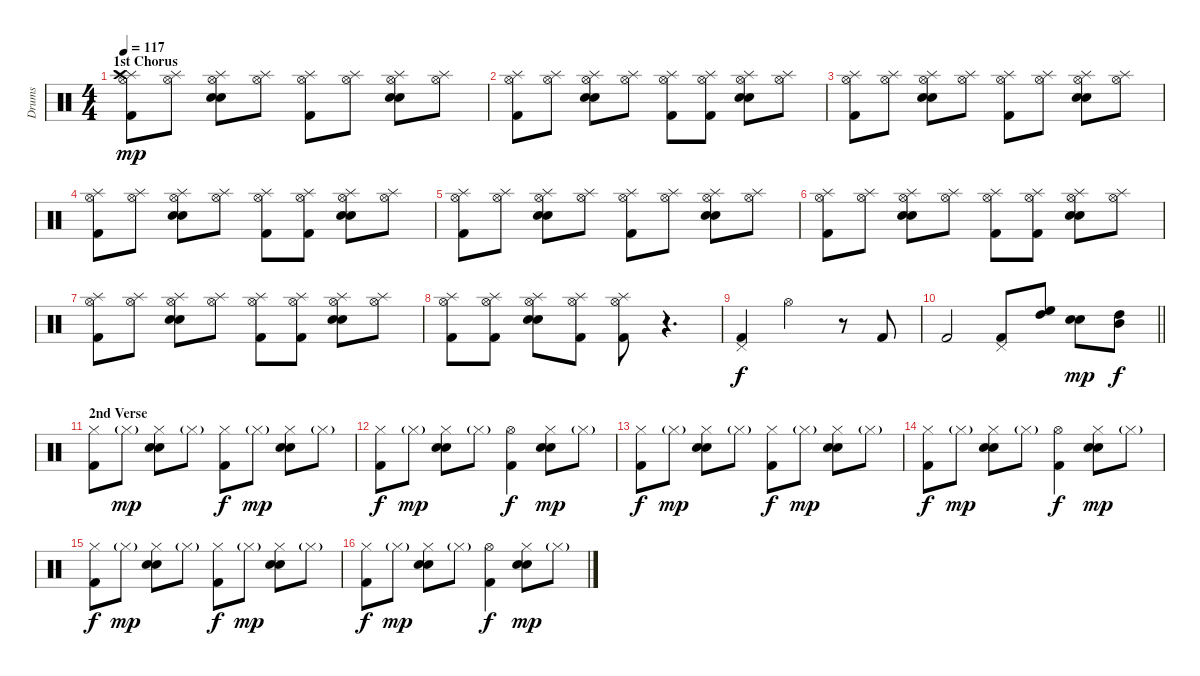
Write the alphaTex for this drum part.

\track ("Drums" "Drums") {instrument percussion}
\staff {score}
\articulation defaults
\ts (4 4)
\section ("" "1st Chorus")
\tempo 117
\clef neutral
\ks c
("Splash (hit)" "Crash high (hit)" "Hi-Hat (open)" "Kick (hit) 2").8{dy mp} ("Splash (hit)" "Hi-Hat (open)").8 ("Splash (hit)" "Hi-Hat (open)" "Electric Snare (hit)" "Snare (hit) 2").8 ("Splash (hit)" "Hi-Hat (open)").8 ("Splash (hit)" "Hi-Hat (open)" "Kick (hit) 2").8 ("Splash (hit)" "Hi-Hat (open)").8 ("Splash (hit)" "Hi-Hat (open)" "Electric Snare (hit)" "Snare (hit) 2").8 ("Splash (hit)" "Hi-Hat (open)").8 |
("Splash (hit)" "Hi-Hat (open)" "Kick (hit) 2").8 ("Splash (hit)" "Hi-Hat (open)").8 ("Splash (hit)" "Hi-Hat (open)" "Electric Snare (hit)" "Snare (hit) 2").8 ("Splash (hit)" "Hi-Hat (open)").8 ("Splash (hit)" "Hi-Hat (open)" "Kick (hit) 2").8 ("Splash (hit)" "Hi-Hat (open)" "Kick (hit) 2").8 ("Splash (hit)" "Hi-Hat (open)" "Electric Snare (hit)" "Snare (hit) 2").8 ("Splash (hit)" "Hi-Hat (open)").8 |
("Splash (hit)" "Hi-Hat (open)" "Kick (hit) 2").8 ("Splash (hit)" "Hi-Hat (open)").8 ("Splash (hit)" "Hi-Hat (open)" "Electric Snare (hit)" "Snare (hit) 2").8 ("Splash (hit)" "Hi-Hat (open)").8 ("Splash (hit)" "Hi-Hat (open)" "Kick (hit) 2").8 ("Splash (hit)" "Hi-Hat (open)").8 ("Splash (hit)" "Hi-Hat (open)" "Electric Snare (hit)" "Snare (hit) 2").8 ("Splash (hit)" "Hi-Hat (open)").8 |
("Splash (hit)" "Hi-Hat (open)" "Kick (hit) 2").8 ("Splash (hit)" "Hi-Hat (open)").8 ("Splash (hit)" "Hi-Hat (open)" "Electric Snare (hit)" "Snare (hit) 2").8 ("Splash (hit)" "Hi-Hat (open)").8 ("Splash (hit)" "Hi-Hat (open)" "Kick (hit) 2").8 ("Splash (hit)" "Hi-Hat (open)" "Kick (hit) 2").8 ("Splash (hit)" "Hi-Hat (open)" "Electric Snare (hit)" "Snare (hit) 2").8 ("Splash (hit)" "Hi-Hat (open)").8 |
("Splash (hit)" "Hi-Hat (open)" "Kick (hit) 2").8 ("Splash (hit)" "Hi-Hat (open)").8 ("Splash (hit)" "Hi-Hat (open)" "Electric Snare (hit)" "Snare (hit) 2").8 ("Splash (hit)" "Hi-Hat (open)").8 ("Splash (hit)" "Hi-Hat (open)" "Kick (hit) 2").8 ("Splash (hit)" "Hi-Hat (open)").8 ("Splash (hit)" "Hi-Hat (open)" "Electric Snare (hit)" "Snare (hit) 2").8 ("Splash (hit)" "Hi-Hat (open)").8 |
("Splash (hit)" "Hi-Hat (open)" "Kick (hit) 2").8 ("Splash (hit)" "Hi-Hat (open)").8 ("Splash (hit)" "Hi-Hat (open)" "Electric Snare (hit)" "Snare (hit) 2").8 ("Splash (hit)" "Hi-Hat (open)").8 ("Splash (hit)" "Hi-Hat (open)" "Kick (hit) 2").8 ("Splash (hit)" "Hi-Hat (open)" "Kick (hit) 2").8 ("Splash (hit)" "Hi-Hat (open)" "Electric Snare (hit)" "Snare (hit) 2").8 ("Splash (hit)" "Hi-Hat (open)").8 |
("Splash (hit)" "Hi-Hat (open)" "Kick (hit) 2").8 ("Splash (hit)" "Hi-Hat (open)").8 ("Splash (hit)" "Hi-Hat (open)" "Electric Snare (hit)" "Snare (hit) 2").8 ("Splash (hit)" "Hi-Hat (open)").8 ("Splash (hit)" "Hi-Hat (open)" "Kick (hit) 2").8 ("Splash (hit)" "Hi-Hat (open)" "Kick (hit) 2").8 ("Splash (hit)" "Hi-Hat (open)" "Electric Snare (hit)" "Snare (hit) 2").8 ("Splash (hit)" "Hi-Hat (open)").8 |
("Splash (hit)" "Hi-Hat (open)" "Kick (hit) 2").8 ("Splash (hit)" "Hi-Hat (open)" "Kick (hit) 2").8 ("Splash (hit)" "Hi-Hat (open)" "Electric Snare (hit)" "Snare (hit) 2").8 ("Splash (hit)" "Hi-Hat (open)" "Kick (hit) 2").8 ("Splash (hit)" "Hi-Hat (open)" "Kick (hit) 2").8 r.4{d} |
("Pedal Hi-Hat (hit)" "Kick (hit) 2").4{dy f} "Hi-Hat (open)".2 r.8 "Kick (hit) 2".8 |
\barLineRight lightlight "Kick (hit) 2".2
("Pedal Hi-Hat (hit)" "Kick (hit) 2").8 ("High Floor Tom (hit)" "High Tom (hit)").8 ("Electric Snare (hit)" "Snare (hit) 2").8{dy mp} ("Mid Tom (hit)" "High Tom (hit)").8{dy f} |
\section ("" "2nd Verse")
("Hi-Hat (closed)" "Kick (hit) 2").8 "Hi-Hat (closed)"{g}.8{dy mp} ("Hi-Hat (closed)" "Electric Snare (hit)" "Snare (hit) 2").8 "Hi-Hat (closed)"{g}.8 ("Hi-Hat (closed)" "Kick (hit) 2").8{dy f} "Hi-Hat (closed)"{g}.8{dy mp} ("Hi-Hat (closed)" "Electric Snare (hit)" "Snare (hit) 2").8 "Hi-Hat (closed)"{g}.8 |
("Hi-Hat (closed)" "Kick (hit) 2").8{dy f} "Hi-Hat (closed)"{g}.8{dy mp} ("Hi-Hat (closed)" "Electric Snare (hit)" "Snare (hit) 2").8 "Hi-Hat (closed)"{g}.8 ("Hi-Hat (open)" "Kick (hit) 2").4{dy f} ("Hi-Hat (closed)" "Electric Snare (hit)" "Snare (hit) 2").8{dy mp} "Hi-Hat (closed)"{g}.8 |
("Hi-Hat (closed)" "Kick (hit) 2").8{dy f} "Hi-Hat (closed)"{g}.8{dy mp} ("Hi-Hat (closed)" "Electric Snare (hit)" "Snare (hit) 2").8 "Hi-Hat (closed)"{g}.8 ("Hi-Hat (closed)" "Kick (hit) 2").8{dy f} "Hi-Hat (closed)"{g}.8{dy mp} ("Hi-Hat (closed)" "Electric Snare (hit)" "Snare (hit) 2").8 "Hi-Hat (closed)"{g}.8 |
("Hi-Hat (closed)" "Kick (hit) 2").8{dy f} "Hi-Hat (closed)"{g}.8{dy mp} ("Hi-Hat (closed)" "Electric Snare (hit)" "Snare (hit) 2").8 "Hi-Hat (closed)"{g}.8 ("Hi-Hat (open)" "Kick (hit) 2").4{dy f} ("Hi-Hat (closed)" "Electric Snare (hit)" "Snare (hit) 2").8{dy mp} "Hi-Hat (closed)"{g}.8 |
("Hi-Hat (closed)" "Kick (hit) 2").8{dy f} "Hi-Hat (closed)"{g}.8{dy mp} ("Hi-Hat (closed)" "Electric Snare (hit)" "Snare (hit) 2").8 "Hi-Hat (closed)"{g}.8 ("Hi-Hat (closed)" "Kick (hit) 2").8{dy f} "Hi-Hat (closed)"{g}.8{dy mp} ("Hi-Hat (closed)" "Electric Snare (hit)" "Snare (hit) 2").8 "Hi-Hat (closed)"{g}.8 |
("Hi-Hat (closed)" "Kick (hit) 2").8{dy f} "Hi-Hat (closed)"{g}.8{dy mp} ("Hi-Hat (closed)" "Electric Snare (hit)" "Snare (hit) 2").8 "Hi-Hat (closed)"{g}.8 ("Hi-Hat (open)" "Kick (hit) 2").4{dy f} ("Hi-Hat (closed)" "Electric Snare (hit)" "Snare (hit) 2").8{dy mp} "Hi-Hat (closed)"{g}.8
